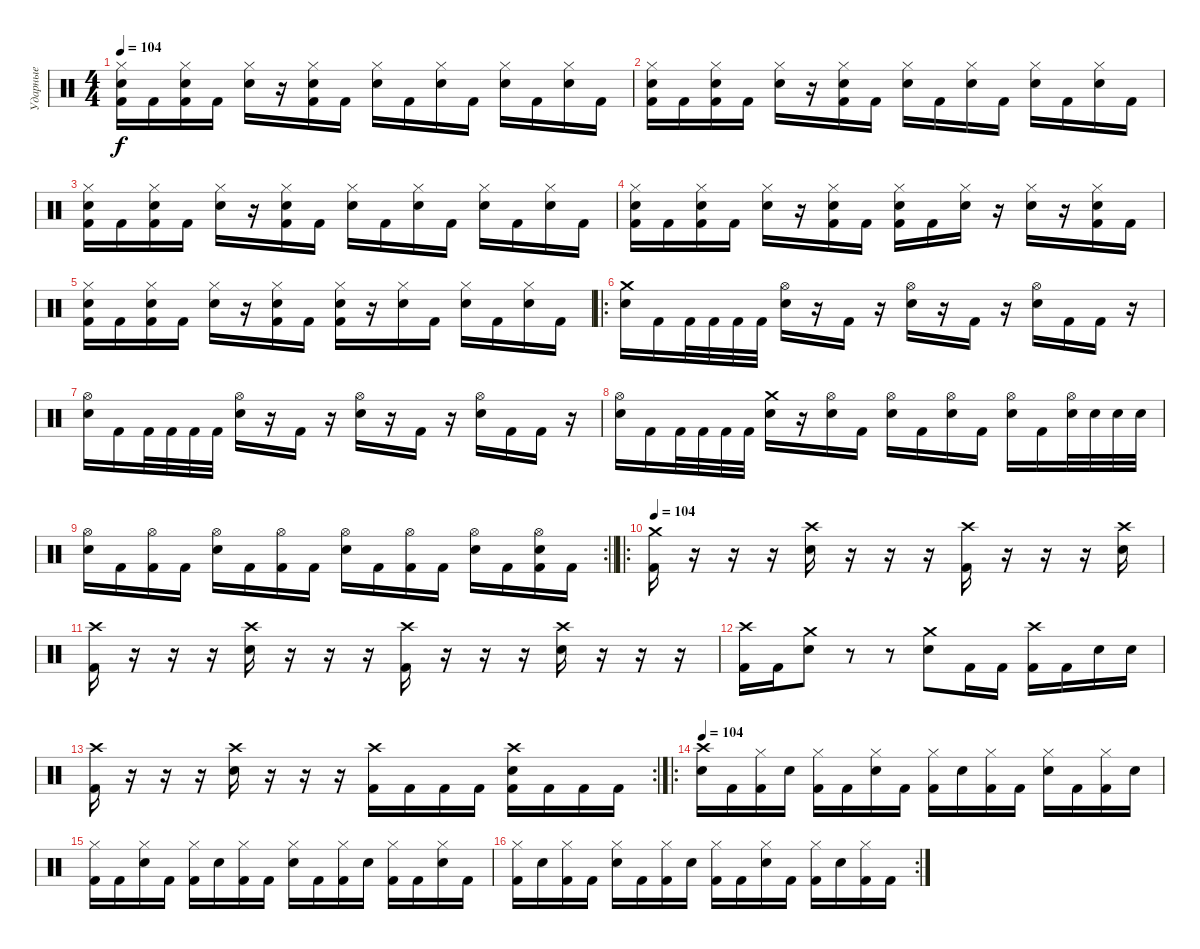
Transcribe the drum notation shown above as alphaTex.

\track ("Ударные" "Ударные") {instrument percussion}
\staff {score}
\articulation defaults
\ts (4 4)
\tempo 104
\clef neutral
\ks c
("Hi-Hat (closed)" "Snare (hit) 2" "Kick (hit) 2").16{dy f} "Kick (hit) 2".16 ("Hi-Hat (closed)" "Snare (hit) 2" "Kick (hit) 2").16 "Kick (hit) 2".16 ("Hi-Hat (closed)" "Snare (hit) 2").16 r.16 ("Hi-Hat (closed)" "Snare (hit) 2" "Kick (hit) 2").16 "Kick (hit) 2".16 ("Hi-Hat (closed)" "Snare (hit) 2").16 "Kick (hit) 2".16 ("Hi-Hat (closed)" "Snare (hit) 2").16 "Kick (hit) 2".16 ("Hi-Hat (closed)" "Snare (hit) 2").16 "Kick (hit) 2".16 ("Hi-Hat (closed)" "Snare (hit) 2").16 "Kick (hit) 2".16 |
("Hi-Hat (closed)" "Snare (hit) 2" "Kick (hit) 2").16 "Kick (hit) 2".16 ("Hi-Hat (closed)" "Snare (hit) 2" "Kick (hit) 2").16 "Kick (hit) 2".16 ("Hi-Hat (closed)" "Snare (hit) 2").16 r.16 ("Hi-Hat (closed)" "Snare (hit) 2" "Kick (hit) 2").16 "Kick (hit) 2".16 ("Hi-Hat (closed)" "Snare (hit) 2").16 "Kick (hit) 2".16 ("Hi-Hat (closed)" "Snare (hit) 2").16 "Kick (hit) 2".16 ("Hi-Hat (closed)" "Snare (hit) 2").16 "Kick (hit) 2".16 ("Hi-Hat (closed)" "Snare (hit) 2").16 "Kick (hit) 2".16 |
("Hi-Hat (closed)" "Snare (hit) 2" "Kick (hit) 2").16 "Kick (hit) 2".16 ("Hi-Hat (closed)" "Snare (hit) 2" "Kick (hit) 2").16 "Kick (hit) 2".16 ("Hi-Hat (closed)" "Snare (hit) 2").16 r.16 ("Hi-Hat (closed)" "Snare (hit) 2" "Kick (hit) 2").16 "Kick (hit) 2".16 ("Hi-Hat (closed)" "Snare (hit) 2").16 "Kick (hit) 2".16 ("Hi-Hat (closed)" "Snare (hit) 2").16 "Kick (hit) 2".16 ("Hi-Hat (closed)" "Snare (hit) 2").16 "Kick (hit) 2".16 ("Hi-Hat (closed)" "Snare (hit) 2").16 "Kick (hit) 2".16 |
("Hi-Hat (closed)" "Snare (hit) 2" "Kick (hit) 2").16 "Kick (hit) 2".16 ("Hi-Hat (closed)" "Snare (hit) 2" "Kick (hit) 2").16 "Kick (hit) 2".16 ("Hi-Hat (closed)" "Snare (hit) 2").16 r.16 ("Hi-Hat (closed)" "Snare (hit) 2" "Kick (hit) 2").16 "Kick (hit) 2".16 ("Hi-Hat (closed)" "Snare (hit) 2" "Kick (hit) 2").16 "Kick (hit) 2".16 ("Hi-Hat (closed)" "Snare (hit) 2").16 r.16 ("Hi-Hat (closed)" "Snare (hit) 2").16 r.16 ("Hi-Hat (closed)" "Snare (hit) 2" "Kick (hit) 2").16 "Kick (hit) 2".16 |
("Hi-Hat (closed)" "Snare (hit) 2" "Kick (hit) 2").16 "Kick (hit) 2".16 ("Hi-Hat (closed)" "Snare (hit) 2" "Kick (hit) 2").16 "Kick (hit) 2".16 ("Hi-Hat (closed)" "Snare (hit) 2").16 r.16 ("Hi-Hat (closed)" "Snare (hit) 2" "Kick (hit) 2").16 "Kick (hit) 2".16 ("Hi-Hat (closed)" "Snare (hit) 2" "Kick (hit) 2").16 r.16 ("Hi-Hat (closed)" "Snare (hit) 2").16 "Kick (hit) 2".16 ("Hi-Hat (closed)" "Snare (hit) 2").16 "Kick (hit) 2".16 ("Hi-Hat (closed)" "Snare (hit) 2").16 "Kick (hit) 2".16 |
\ro
("Crash medium (hit)" "Snare (hit) 2").16 "Kick (hit) 2".16 "Kick (hit) 2".32 "Kick (hit) 2".32 "Kick (hit) 2".32 "Kick (hit) 2".32 ("Hi-Hat (open)" "Snare (hit) 2").16 r.16 "Kick (hit) 2".16 r.16 ("Hi-Hat (open)" "Snare (hit) 2").16 r.16 "Kick (hit) 2".16 r.16 ("Hi-Hat (open)" "Snare (hit) 2").16 "Kick (hit) 2".16 "Kick (hit) 2".16 r.16 |
("Hi-Hat (open)" "Snare (hit) 2").16 "Kick (hit) 2".16 "Kick (hit) 2".32 "Kick (hit) 2".32 "Kick (hit) 2".32 "Kick (hit) 2".32 ("Hi-Hat (open)" "Snare (hit) 2").16 r.16 "Kick (hit) 2".16 r.16 ("Hi-Hat (open)" "Snare (hit) 2").16 r.16 "Kick (hit) 2".16 r.16 ("Hi-Hat (open)" "Snare (hit) 2").16 "Kick (hit) 2".16 "Kick (hit) 2".16 r.16 |
("Hi-Hat (open)" "Snare (hit) 2").16 "Kick (hit) 2".16 "Kick (hit) 2".32 "Kick (hit) 2".32 "Kick (hit) 2".32 "Kick (hit) 2".32 ("Crash medium (hit)" "Snare (hit) 2").16 r.16 ("Hi-Hat (open)" "Snare (hit) 2").16 "Kick (hit) 2".16 ("Hi-Hat (open)" "Snare (hit) 2").16 "Kick (hit) 2".16 ("Hi-Hat (open)" "Snare (hit) 2").16 "Kick (hit) 2".16 ("Hi-Hat (open)" "Snare (hit) 2").16 "Kick (hit) 2".16 ("Hi-Hat (open)" "Snare (hit) 2").32 "Snare (hit) 2".32 "Snare (hit) 2".32 "Snare (hit) 2".32 |
\rc 2
\barLineRight lightlight
("Hi-Hat (open)" "Snare (hit) 2").16 "Kick (hit) 2".16 ("Hi-Hat (open)" "Kick (hit) 2").16 "Kick (hit) 2".16 ("Hi-Hat (open)" "Snare (hit) 2").16 "Kick (hit) 2".16 ("Hi-Hat (open)" "Kick (hit) 2").16 "Kick (hit) 2".16 ("Hi-Hat (open)" "Snare (hit) 2").16 "Kick (hit) 2".16 ("Hi-Hat (open)" "Kick (hit) 2").16 "Kick (hit) 2".16 ("Hi-Hat (open)" "Snare (hit) 2").16 "Kick (hit) 2".16 ("Hi-Hat (open)" "Snare (hit) 2" "Kick (hit) 2").16 "Kick (hit) 2".16 |
\ro
\tempo 104
("Crash medium (hit)" "Kick (hit) 2").16 r.16 r.16 r.16 ("Crash high (hit)" "Snare (hit) 2").16 r.16 r.16 r.16 ("Crash high (hit)" "Kick (hit) 2").16 r.16 r.16 r.16 ("Crash high (hit)" "Snare (hit) 2").16 |
("Crash high (hit)" "Kick (hit) 2").16 r.16 r.16 r.16 ("Crash high (hit)" "Snare (hit) 2").16 r.16 r.16 r.16 ("Crash high (hit)" "Kick (hit) 2").16 r.16 r.16 r.16 ("Crash high (hit)" "Snare (hit) 2").16 r.16 r.16 r.16 |
("Crash high (hit)" "Kick (hit) 2").16 "Kick (hit) 2".16 ("Crash medium (hit)" "Snare (hit) 2").8 r.8 r.8 ("Electric Snare (hit)" "Crash medium (hit)").8 "Kick (hit) 2".16 "Kick (hit) 2".16 ("Kick (hit) 2" "Crash high (hit)").16 "Kick (hit) 2".16 "Snare (hit) 2".16 "Snare (hit) 2".16 |
\rc 2
("Crash high (hit)" "Kick (hit) 2").16 r.16 r.16 r.16 ("Crash high (hit)" "Snare (hit) 2").16 r.16 r.16 r.16 ("Crash high (hit)" "Kick (hit) 2").16 "Kick (hit) 2".16 "Kick (hit) 2".16 "Kick (hit) 2".16 ("Crash high (hit)" "Snare (hit) 2" "Kick (hit) 2").16 "Kick (hit) 2".16 "Kick (hit) 2".16 "Kick (hit) 2".16 |
\ro
\tempo 104
("Crash high (hit)" "Snare (hit) 2").16 "Kick (hit) 2".16 ("Hi-Hat (closed)" "Kick (hit) 2").16 "Snare (hit) 2".16 ("Hi-Hat (closed)" "Kick (hit) 2").16 "Kick (hit) 2".16 ("Hi-Hat (closed)" "Snare (hit) 2").16 "Kick (hit) 2".16 ("Hi-Hat (closed)" "Kick (hit) 2").16 "Snare (hit) 2".16 ("Hi-Hat (closed)" "Kick (hit) 2").16 "Kick (hit) 2".16 ("Hi-Hat (closed)" "Snare (hit) 2").16 "Kick (hit) 2".16 ("Hi-Hat (closed)" "Kick (hit) 2").16 "Snare (hit) 2".16 |
("Hi-Hat (closed)" "Kick (hit) 2").16 "Kick (hit) 2".16 ("Hi-Hat (closed)" "Snare (hit) 2").16 "Kick (hit) 2".16 ("Hi-Hat (closed)" "Kick (hit) 2").16 "Snare (hit) 2".16 ("Hi-Hat (closed)" "Kick (hit) 2").16 "Kick (hit) 2".16 ("Hi-Hat (closed)" "Snare (hit) 2").16 "Kick (hit) 2".16 ("Hi-Hat (closed)" "Kick (hit) 2").16 "Snare (hit) 2".16 ("Hi-Hat (closed)" "Kick (hit) 2").16 "Kick (hit) 2".16 ("Hi-Hat (closed)" "Snare (hit) 2").16 "Kick (hit) 2".16 |
\rc 2
("Hi-Hat (closed)" "Kick (hit) 2").16 "Snare (hit) 2".16 ("Hi-Hat (closed)" "Kick (hit) 2").16 "Kick (hit) 2".16 ("Hi-Hat (closed)" "Snare (hit) 2").16 "Kick (hit) 2".16 ("Hi-Hat (closed)" "Kick (hit) 2").16 "Snare (hit) 2".16 ("Hi-Hat (closed)" "Kick (hit) 2").16 "Kick (hit) 2".16 ("Hi-Hat (closed)" "Snare (hit) 2").16 "Kick (hit) 2".16 ("Hi-Hat (closed)" "Kick (hit) 2").16 "Snare (hit) 2".16 ("Hi-Hat (closed)" "Kick (hit) 2").16 "Kick (hit) 2".16
